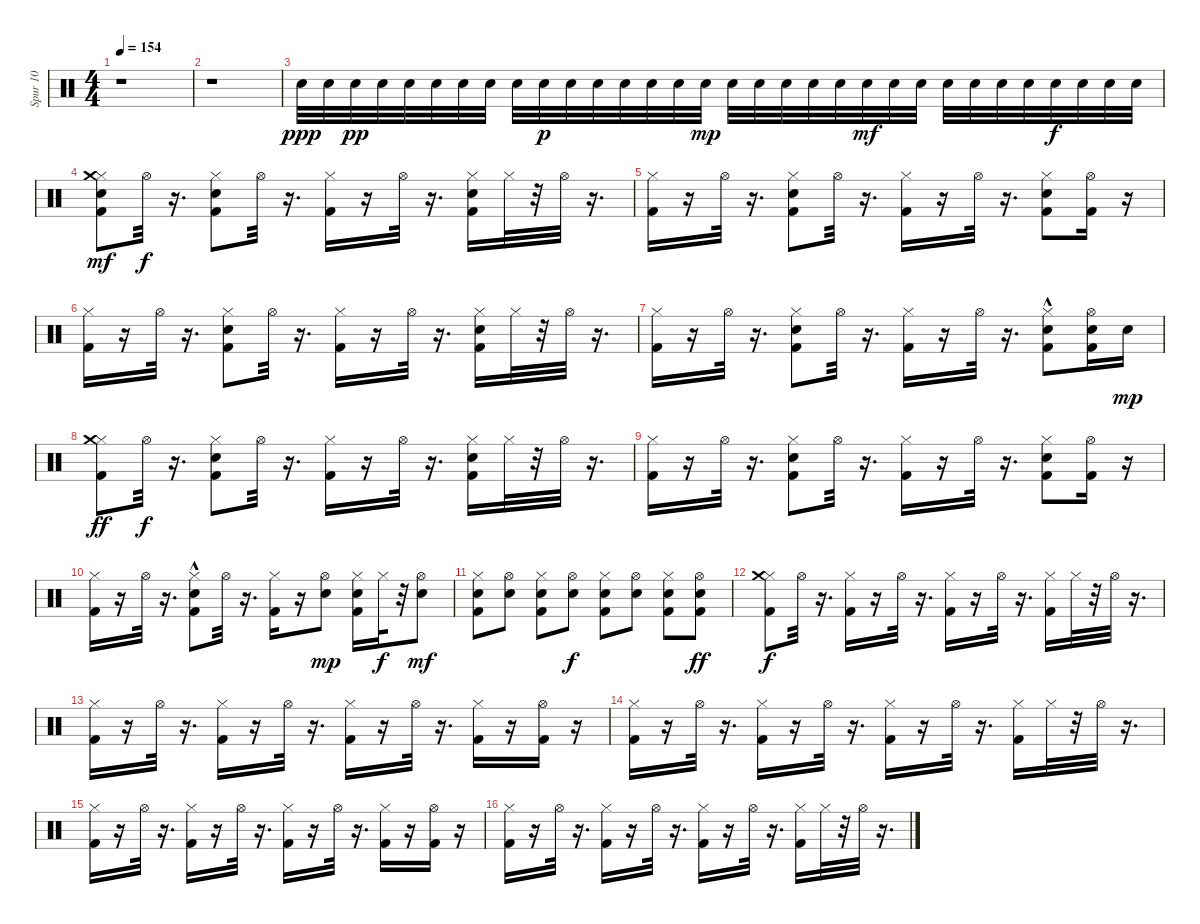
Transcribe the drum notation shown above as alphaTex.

\track ("Spur 10" "Spur 10") {instrument percussion}
\staff {score}
\articulation defaults
\ts (4 4)
\tempo 154
\clef neutral
\ks c
r.1{dy ppp} |
r.1 |
"Electric Snare (hit)".32{volume 12} "Electric Snare (hit)".32 "Electric Snare (hit)".32{dy pp} "Electric Snare (hit)".32 "Electric Snare (hit)".32 "Electric Snare (hit)".32 "Electric Snare (hit)".32 "Electric Snare (hit)".32 "Electric Snare (hit)".32 "Electric Snare (hit)".32{dy p} "Electric Snare (hit)".32 "Electric Snare (hit)".32 "Electric Snare (hit)".32 "Electric Snare (hit)".32 "Electric Snare (hit)".32 "Electric Snare (hit)".32{dy mp} "Electric Snare (hit)".32 "Electric Snare (hit)".32 "Electric Snare (hit)".32 "Electric Snare (hit)".32 "Electric Snare (hit)".32 "Electric Snare (hit)".32{dy mf} "Electric Snare (hit)".32 "Electric Snare (hit)".32 "Electric Snare (hit)".32 "Electric Snare (hit)".32 "Electric Snare (hit)".32 "Electric Snare (hit)".32 "Electric Snare (hit)".32{dy f} "Electric Snare (hit)".32 "Electric Snare (hit)".32 "Electric Snare (hit)".32 |
("Kick (hit) 2" "Snare (hit) 2" "Hi-Hat (closed)" "Crash medium (hit)").8{dy mf} "Hi-Hat (open)".32{dy f} r.16{d} ("Kick (hit) 2" "Snare (hit) 2" "Hi-Hat (closed)").8 "Hi-Hat (open)".32 r.16{d} ("Kick (hit) 2" "Hi-Hat (closed)").16 r.16 "Hi-Hat (open)".32 r.16{d} ("Kick (hit) 2" "Snare (hit) 2" "Hi-Hat (closed)").16 "Hi-Hat (closed)".32 r.32 "Hi-Hat (open)".32 r.16{d} |
("Kick (hit) 2" "Hi-Hat (closed)").16 r.16 "Hi-Hat (open)".32 r.16{d} ("Kick (hit) 2" "Snare (hit) 2" "Hi-Hat (closed)").8 "Hi-Hat (open)".32 r.16{d} ("Kick (hit) 2" "Hi-Hat (closed)").16 r.16 "Hi-Hat (open)".32 r.16{d} ("Kick (hit) 2" "Snare (hit) 2" "Hi-Hat (closed)").8 ("Kick (hit) 2" "Hi-Hat (open)").16 r.16 |
("Kick (hit) 2" "Hi-Hat (closed)").16 r.16 "Hi-Hat (open)".32 r.16{d} ("Kick (hit) 2" "Snare (hit) 2" "Hi-Hat (closed)").8 "Hi-Hat (open)".32 r.16{d} ("Kick (hit) 2" "Hi-Hat (closed)").16 r.16 "Hi-Hat (open)".32 r.16{d} ("Kick (hit) 2" "Snare (hit) 2" "Hi-Hat (closed)").16 "Hi-Hat (closed)".32 r.32 "Hi-Hat (open)".32 r.16{d} |
("Kick (hit) 2" "Hi-Hat (closed)").16 r.16 "Hi-Hat (open)".32 r.16{d} ("Kick (hit) 2" "Snare (hit) 2" "Hi-Hat (closed)").8 "Hi-Hat (open)".32 r.16{d} ("Kick (hit) 2" "Hi-Hat (closed)").16 r.16 "Hi-Hat (open)".32 r.16{d} ("Kick (hit) 2" "Snare (hit) 2"{hac} "Hi-Hat (closed)").8 ("Electric Snare (hit)" "Kick (hit) 2" "Hi-Hat (open)").16 "Snare (hit) 2".16{dy mp} |
("Kick (hit) 2" "Hi-Hat (closed)" "Crash medium (hit)").8{dy ff} "Hi-Hat (open)".32{dy f} r.16{d} ("Kick (hit) 2" "Snare (hit) 2" "Hi-Hat (closed)").8 "Hi-Hat (open)".32 r.16{d} ("Kick (hit) 2" "Hi-Hat (closed)").16 r.16 "Hi-Hat (open)".32 r.16{d} ("Kick (hit) 2" "Snare (hit) 2" "Hi-Hat (closed)").16 "Hi-Hat (closed)".32 r.32 "Hi-Hat (open)".32 r.16{d} |
("Kick (hit) 2" "Hi-Hat (closed)").16 r.16 "Hi-Hat (open)".32 r.16{d} ("Kick (hit) 2" "Snare (hit) 2" "Hi-Hat (closed)").8 "Hi-Hat (open)".32 r.16{d} ("Kick (hit) 2" "Hi-Hat (closed)").16 r.16 "Hi-Hat (open)".32 r.16{d} ("Kick (hit) 2" "Snare (hit) 2" "Hi-Hat (closed)").8 ("Kick (hit) 2" "Hi-Hat (open)").16 r.16 |
("Kick (hit) 2" "Hi-Hat (closed)").16 r.16 "Hi-Hat (open)".32 r.16{d} ("Kick (hit) 2" "Snare (hit) 2"{hac} "Hi-Hat (closed)").8 "Hi-Hat (open)".32 r.16{d} ("Kick (hit) 2" "Hi-Hat (closed)").16 r.16 ("Snare (hit) 2" "Hi-Hat (open)").8{dy mp} ("Kick (hit) 2" "Snare (hit) 2" "Hi-Hat (closed)").16 "Hi-Hat (closed)".32{dy f} r.32 ("Snare (hit) 2" "Hi-Hat (open)").8{dy mf} |
("Kick (hit) 2" "Snare (hit) 2" "Hi-Hat (closed)").8 ("Snare (hit) 2" "Hi-Hat (open)").8 ("Kick (hit) 2" "Snare (hit) 2" "Hi-Hat (closed)").8 ("Snare (hit) 2" "Hi-Hat (open)").8{dy f} ("Kick (hit) 2" "Snare (hit) 2" "Hi-Hat (closed)").8 ("Snare (hit) 2" "Hi-Hat (open)").8 ("Kick (hit) 2" "Snare (hit) 2" "Hi-Hat (closed)").8 ("Kick (hit) 2" "Snare (hit) 2" "Hi-Hat (open)").8{dy ff} |
("Kick (hit) 2" "Hi-Hat (closed)" "Crash medium (hit)").8{dy f} "Hi-Hat (open)".32 r.16{d} ("Kick (hit) 2" "Hi-Hat (closed)").16 r.16 "Hi-Hat (open)".32 r.16{d} ("Kick (hit) 2" "Hi-Hat (closed)").16 r.16 "Hi-Hat (open)".32 r.16{d} ("Kick (hit) 2" "Hi-Hat (closed)").16 "Hi-Hat (closed)".32 r.32 "Hi-Hat (open)".32 r.16{d} |
("Kick (hit) 2" "Hi-Hat (closed)").16 r.16 "Hi-Hat (open)".32 r.16{d} ("Kick (hit) 2" "Hi-Hat (closed)").16 r.16 "Hi-Hat (open)".32 r.16{d} ("Kick (hit) 2" "Hi-Hat (closed)").16 r.16 "Hi-Hat (open)".32 r.16{d} ("Kick (hit) 2" "Hi-Hat (closed)").16 r.16 ("Kick (hit) 2" "Hi-Hat (open)").16 r.16 |
("Kick (hit) 2" "Hi-Hat (closed)").16 r.16 "Hi-Hat (open)".32 r.16{d} ("Kick (hit) 2" "Hi-Hat (closed)").16 r.16 "Hi-Hat (open)".32 r.16{d} ("Kick (hit) 2" "Hi-Hat (closed)").16 r.16 "Hi-Hat (open)".32 r.16{d} ("Kick (hit) 2" "Hi-Hat (closed)").16 "Hi-Hat (closed)".32 r.32 "Hi-Hat (open)".32 r.16{d} |
("Kick (hit) 2" "Hi-Hat (closed)").16 r.16 "Hi-Hat (open)".32 r.16{d} ("Kick (hit) 2" "Hi-Hat (closed)").16 r.16 "Hi-Hat (open)".32 r.16{d} ("Kick (hit) 2" "Hi-Hat (closed)").16 r.16 "Hi-Hat (open)".32 r.16{d} ("Kick (hit) 2" "Hi-Hat (closed)").16 r.16 ("Kick (hit) 2" "Hi-Hat (open)").16 r.16 |
("Kick (hit) 2" "Hi-Hat (closed)").16 r.16 "Hi-Hat (open)".32 r.16{d} ("Kick (hit) 2" "Hi-Hat (closed)").16 r.16 "Hi-Hat (open)".32 r.16{d} ("Kick (hit) 2" "Hi-Hat (closed)").16 r.16 "Hi-Hat (open)".32 r.16{d} ("Kick (hit) 2" "Hi-Hat (closed)").16 "Hi-Hat (closed)".32 r.32 "Hi-Hat (open)".32 r.16{d}
